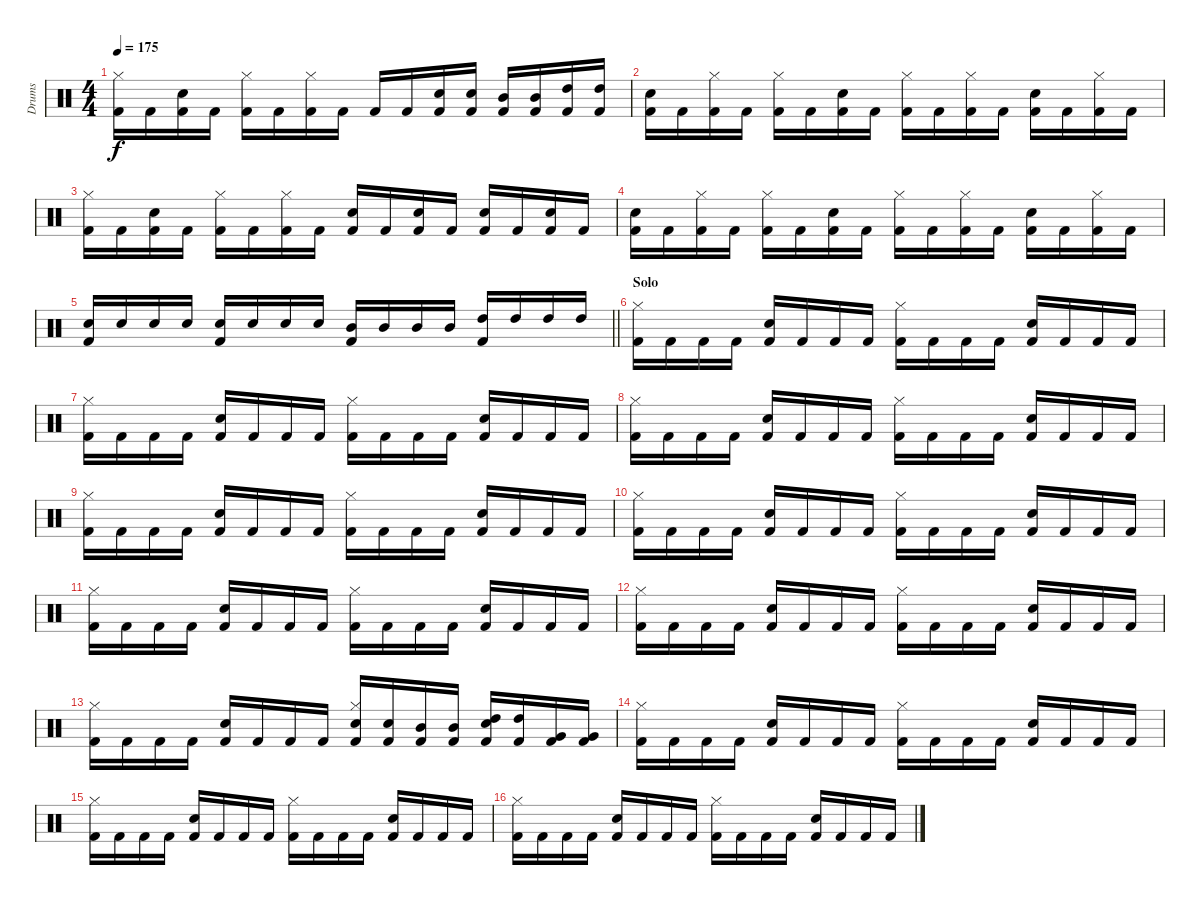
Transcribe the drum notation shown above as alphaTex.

\track ("Drums" "Drums") {instrument percussion}
\staff {score}
\articulation defaults
\ts (4 4)
\tempo 175
\clef neutral
\ks c
("Kick (hit) 2" "Hi-Hat (closed)").16{dy f} "Kick (hit) 2".16 ("Kick (hit) 2" "Snare (hit) 2").16 "Kick (hit) 2".16 ("Kick (hit) 2" "Hi-Hat (closed)").16 "Kick (hit) 2".16 ("Kick (hit) 2" "Hi-Hat (closed)").16 "Kick (hit) 2".16 "Kick (hit) 2".16 "Kick (hit) 2".16 ("Kick (hit) 2" "Electric Snare (hit)").16 ("Kick (hit) 2" "Electric Snare (hit)").16 ("Kick (hit) 2" "Mid Tom (hit)").16 ("Kick (hit) 2" "Mid Tom (hit)").16 ("Kick (hit) 2" "High Tom (hit)").16 ("Kick (hit) 2" "High Tom (hit)").16 |
("Kick (hit) 2" "Snare (hit) 2").16 "Kick (hit) 2".16 ("Kick (hit) 2" "Hi-Hat (closed)").16 "Kick (hit) 2".16 ("Kick (hit) 2" "Hi-Hat (closed)").16 "Kick (hit) 2".16 ("Kick (hit) 2" "Snare (hit) 2").16 "Kick (hit) 2".16 ("Kick (hit) 2" "Hi-Hat (closed)").16 "Kick (hit) 2".16 ("Kick (hit) 2" "Hi-Hat (closed)").16 "Kick (hit) 2".16 ("Kick (hit) 2" "Snare (hit) 2").16 "Kick (hit) 2".16 ("Kick (hit) 2" "Hi-Hat (closed)").16 "Kick (hit) 2".16 |
("Kick (hit) 2" "Hi-Hat (closed)").16 "Kick (hit) 2".16 ("Kick (hit) 2" "Snare (hit) 2").16 "Kick (hit) 2".16 ("Kick (hit) 2" "Hi-Hat (closed)").16 "Kick (hit) 2".16 ("Kick (hit) 2" "Hi-Hat (closed)").16 "Kick (hit) 2".16 ("Kick (hit) 2" "Snare (hit) 2").16 "Kick (hit) 2".16 ("Kick (hit) 2" "Snare (hit) 2").16 "Kick (hit) 2".16 ("Kick (hit) 2" "Snare (hit) 2").16 "Kick (hit) 2".16 ("Kick (hit) 2" "Snare (hit) 2").16 "Kick (hit) 2".16 |
("Kick (hit) 2" "Snare (hit) 2").16 "Kick (hit) 2".16 ("Kick (hit) 2" "Hi-Hat (closed)").16 "Kick (hit) 2".16 ("Kick (hit) 2" "Hi-Hat (closed)").16 "Kick (hit) 2".16 ("Kick (hit) 2" "Snare (hit) 2").16 "Kick (hit) 2".16 ("Kick (hit) 2" "Hi-Hat (closed)").16 "Kick (hit) 2".16 ("Kick (hit) 2" "Hi-Hat (closed)").16 "Kick (hit) 2".16 ("Kick (hit) 2" "Snare (hit) 2").16 "Kick (hit) 2".16 ("Kick (hit) 2" "Hi-Hat (closed)").16 "Kick (hit) 2".16 |
\barLineRight lightlight
("Kick (hit) 2" "Snare (hit) 2").16 "Snare (hit) 2".16 "Snare (hit) 2".16 "Snare (hit) 2".16 ("Kick (hit) 2" "Electric Snare (hit)").16 "Electric Snare (hit)".16 "Electric Snare (hit)".16 "Electric Snare (hit)".16 ("Kick (hit) 2" "Mid Tom (hit)").16 "Mid Tom (hit)".16 "Mid Tom (hit)".16 "Mid Tom (hit)".16 ("Kick (hit) 2" "High Tom (hit)").16 "High Tom (hit)".16 "High Tom (hit)".16 "High Tom (hit)".16 |
\section ("" "Solo")
("Kick (hit) 2" "Hi-Hat (closed)").16 "Kick (hit) 2".16 "Kick (hit) 2".16 "Kick (hit) 2".16 ("Kick (hit) 2" "Snare (hit) 2").16 "Kick (hit) 2".16 "Kick (hit) 2".16 "Kick (hit) 2".16 ("Kick (hit) 2" "Hi-Hat (closed)").16 "Kick (hit) 2".16 "Kick (hit) 2".16 "Kick (hit) 2".16 ("Kick (hit) 2" "Snare (hit) 2").16 "Kick (hit) 2".16 "Kick (hit) 2".16 "Kick (hit) 2".16 |
("Kick (hit) 2" "Hi-Hat (closed)").16 "Kick (hit) 2".16 "Kick (hit) 2".16 "Kick (hit) 2".16 ("Kick (hit) 2" "Snare (hit) 2").16 "Kick (hit) 2".16 "Kick (hit) 2".16 "Kick (hit) 2".16 ("Kick (hit) 2" "Hi-Hat (closed)").16 "Kick (hit) 2".16 "Kick (hit) 2".16 "Kick (hit) 2".16 ("Kick (hit) 2" "Snare (hit) 2").16 "Kick (hit) 2".16 "Kick (hit) 2".16 "Kick (hit) 2".16 |
("Kick (hit) 2" "Hi-Hat (closed)").16 "Kick (hit) 2".16 "Kick (hit) 2".16 "Kick (hit) 2".16 ("Kick (hit) 2" "Snare (hit) 2").16 "Kick (hit) 2".16 "Kick (hit) 2".16 "Kick (hit) 2".16 ("Kick (hit) 2" "Hi-Hat (closed)").16 "Kick (hit) 2".16 "Kick (hit) 2".16 "Kick (hit) 2".16 ("Kick (hit) 2" "Snare (hit) 2").16 "Kick (hit) 2".16 "Kick (hit) 2".16 "Kick (hit) 2".16 |
("Kick (hit) 2" "Hi-Hat (closed)").16 "Kick (hit) 2".16 "Kick (hit) 2".16 "Kick (hit) 2".16 ("Kick (hit) 2" "Snare (hit) 2").16 "Kick (hit) 2".16 "Kick (hit) 2".16 "Kick (hit) 2".16 ("Kick (hit) 2" "Hi-Hat (closed)").16 "Kick (hit) 2".16 "Kick (hit) 2".16 "Kick (hit) 2".16 ("Kick (hit) 2" "Snare (hit) 2").16 "Kick (hit) 2".16 "Kick (hit) 2".16 "Kick (hit) 2".16 |
("Kick (hit) 2" "Hi-Hat (closed)").16 "Kick (hit) 2".16 "Kick (hit) 2".16 "Kick (hit) 2".16 ("Kick (hit) 2" "Snare (hit) 2").16 "Kick (hit) 2".16 "Kick (hit) 2".16 "Kick (hit) 2".16 ("Kick (hit) 2" "Hi-Hat (closed)").16 "Kick (hit) 2".16 "Kick (hit) 2".16 "Kick (hit) 2".16 ("Kick (hit) 2" "Snare (hit) 2").16 "Kick (hit) 2".16 "Kick (hit) 2".16 "Kick (hit) 2".16 |
("Kick (hit) 2" "Hi-Hat (closed)").16 "Kick (hit) 2".16 "Kick (hit) 2".16 "Kick (hit) 2".16 ("Kick (hit) 2" "Snare (hit) 2").16 "Kick (hit) 2".16 "Kick (hit) 2".16 "Kick (hit) 2".16 ("Kick (hit) 2" "Hi-Hat (closed)").16 "Kick (hit) 2".16 "Kick (hit) 2".16 "Kick (hit) 2".16 ("Kick (hit) 2" "Snare (hit) 2").16 "Kick (hit) 2".16 "Kick (hit) 2".16 "Kick (hit) 2".16 |
("Kick (hit) 2" "Hi-Hat (closed)").16 "Kick (hit) 2".16 "Kick (hit) 2".16 "Kick (hit) 2".16 ("Kick (hit) 2" "Snare (hit) 2").16 "Kick (hit) 2".16 "Kick (hit) 2".16 "Kick (hit) 2".16 ("Kick (hit) 2" "Hi-Hat (closed)").16 "Kick (hit) 2".16 "Kick (hit) 2".16 "Kick (hit) 2".16 ("Kick (hit) 2" "Snare (hit) 2").16 "Kick (hit) 2".16 "Kick (hit) 2".16 "Kick (hit) 2".16 |
("Kick (hit) 2" "Hi-Hat (closed)").16 "Kick (hit) 2".16 "Kick (hit) 2".16 "Kick (hit) 2".16 ("Kick (hit) 2" "Snare (hit) 2").16 "Kick (hit) 2".16 "Kick (hit) 2".16 "Kick (hit) 2".16 ("Kick (hit) 2" "Hi-Hat (closed)" "Electric Snare (hit)").16 ("Kick (hit) 2" "Electric Snare (hit)").16 ("Kick (hit) 2" "Mid Tom (hit)").16 ("Kick (hit) 2" "Mid Tom (hit)").16 ("Kick (hit) 2" "Snare (hit) 2" "High Tom (hit)").16 ("Kick (hit) 2" "High Tom (hit)").16 ("Kick (hit) 2" "Very Low Tom (hit)").16 ("Kick (hit) 2" "Very Low Tom (hit)").16 |
("Kick (hit) 2" "Hi-Hat (closed)").16 "Kick (hit) 2".16 "Kick (hit) 2".16 "Kick (hit) 2".16 ("Kick (hit) 2" "Snare (hit) 2").16 "Kick (hit) 2".16 "Kick (hit) 2".16 "Kick (hit) 2".16 ("Kick (hit) 2" "Hi-Hat (closed)").16 "Kick (hit) 2".16 "Kick (hit) 2".16 "Kick (hit) 2".16 ("Kick (hit) 2" "Snare (hit) 2").16 "Kick (hit) 2".16 "Kick (hit) 2".16 "Kick (hit) 2".16 |
("Kick (hit) 2" "Hi-Hat (closed)").16 "Kick (hit) 2".16 "Kick (hit) 2".16 "Kick (hit) 2".16 ("Kick (hit) 2" "Snare (hit) 2").16 "Kick (hit) 2".16 "Kick (hit) 2".16 "Kick (hit) 2".16 ("Kick (hit) 2" "Hi-Hat (closed)").16 "Kick (hit) 2".16 "Kick (hit) 2".16 "Kick (hit) 2".16 ("Kick (hit) 2" "Snare (hit) 2").16 "Kick (hit) 2".16 "Kick (hit) 2".16 "Kick (hit) 2".16 |
("Kick (hit) 2" "Hi-Hat (closed)").16 "Kick (hit) 2".16 "Kick (hit) 2".16 "Kick (hit) 2".16 ("Kick (hit) 2" "Snare (hit) 2").16 "Kick (hit) 2".16 "Kick (hit) 2".16 "Kick (hit) 2".16 ("Kick (hit) 2" "Hi-Hat (closed)").16 "Kick (hit) 2".16 "Kick (hit) 2".16 "Kick (hit) 2".16 ("Kick (hit) 2" "Snare (hit) 2").16 "Kick (hit) 2".16 "Kick (hit) 2".16 "Kick (hit) 2".16
